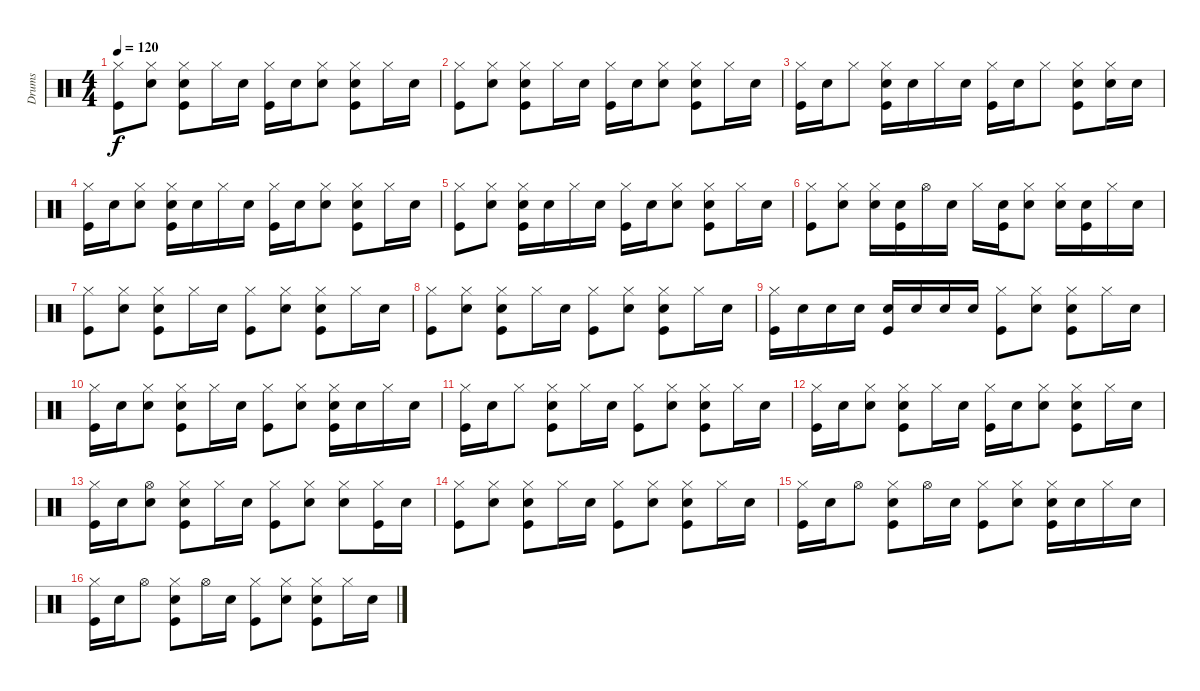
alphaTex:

\track ("Drums" "Drums") {instrument percussion}
\staff {score}
\articulation defaults
\ts (4 4)
\tempo 120
\clef neutral
\ks c
("Hi-Hat (closed)" "Kick (hit)").8{dy f} ("Hi-Hat (closed)" "Snare (hit) 2").8 ("Hi-Hat (closed)" "Snare (hit) 2" "Kick (hit)").8 "Hi-Hat (closed)".16 "Snare (hit) 2".16 ("Hi-Hat (closed)" "Kick (hit)").16 "Snare (hit) 2".16 ("Hi-Hat (closed)" "Snare (hit) 2").8 ("Hi-Hat (closed)" "Snare (hit) 2" "Kick (hit)").8 "Hi-Hat (closed)".16 "Snare (hit) 2".16 |
("Hi-Hat (closed)" "Kick (hit)").8 ("Hi-Hat (closed)" "Snare (hit) 2").8 ("Hi-Hat (closed)" "Snare (hit) 2" "Kick (hit)").8 "Hi-Hat (closed)".16 "Snare (hit) 2".16 ("Hi-Hat (closed)" "Kick (hit)").16 "Snare (hit) 2".16 ("Hi-Hat (closed)" "Snare (hit) 2").8 ("Hi-Hat (closed)" "Snare (hit) 2" "Kick (hit)").8 "Hi-Hat (closed)".16 "Snare (hit) 2".16 |
("Hi-Hat (closed)" "Kick (hit)").16 "Snare (hit) 2".16 "Hi-Hat (closed)".8 ("Hi-Hat (closed)" "Snare (hit) 2" "Kick (hit)").16 "Snare (hit) 2".16 "Hi-Hat (closed)".16 "Snare (hit) 2".16 ("Hi-Hat (closed)" "Kick (hit)").16 "Snare (hit) 2".16 "Hi-Hat (closed)".8 ("Hi-Hat (closed)" "Snare (hit) 2" "Kick (hit)").8 ("Hi-Hat (closed)" "Snare (hit) 2").16 "Snare (hit) 2".16 |
("Hi-Hat (closed)" "Kick (hit)").16 "Snare (hit) 2".16 ("Hi-Hat (closed)" "Snare (hit) 2").8 ("Hi-Hat (closed)" "Snare (hit) 2" "Kick (hit)").16 "Snare (hit)".16 "Hi-Hat (closed)".16 "Snare (hit) 2".16 ("Hi-Hat (closed)" "Kick (hit)").16 "Snare (hit) 2".16 ("Hi-Hat (closed)" "Snare (hit) 2").8 ("Hi-Hat (closed)" "Snare (hit) 2" "Kick (hit)").8 "Hi-Hat (closed)".16 "Snare (hit) 2".16 |
("Hi-Hat (closed)" "Kick (hit)").8 ("Hi-Hat (closed)" "Snare (hit) 2").8 ("Hi-Hat (closed)" "Snare (hit) 2" "Kick (hit)").16 "Snare (hit) 2".16 "Hi-Hat (closed)".16 "Snare (hit) 2".16 ("Hi-Hat (closed)" "Kick (hit)").16 "Snare (hit) 2".16 ("Hi-Hat (closed)" "Snare (hit) 2").8 ("Hi-Hat (closed)" "Snare (hit) 2" "Kick (hit)").8 "Hi-Hat (closed)".16 "Snare (hit) 2".16 |
("Hi-Hat (closed)" "Kick (hit)").8 ("Hi-Hat (closed)" "Snare (hit) 2").8 ("Hi-Hat (closed)" "Snare (hit) 2").16 ("Snare (hit) 2" "Kick (hit)").16 "Hi-Hat (open)".16 "Snare (hit) 2".16 "Hi-Hat (closed)".16 ("Snare (hit) 2" "Kick (hit)").16 ("Hi-Hat (closed)" "Snare (hit) 2").8 ("Hi-Hat (closed)" "Snare (hit) 2").16 ("Snare (hit) 2" "Kick (hit)").16 "Hi-Hat (closed)".16 "Snare (hit) 2".16 |
("Hi-Hat (closed)" "Kick (hit)").8 ("Hi-Hat (closed)" "Snare (hit) 2").8 ("Hi-Hat (closed)" "Snare (hit) 2" "Kick (hit)").8 "Hi-Hat (closed)".16 "Snare (hit) 2".16 ("Hi-Hat (closed)" "Kick (hit)").8 ("Hi-Hat (closed)" "Snare (hit) 2").8 ("Hi-Hat (closed)" "Snare (hit) 2" "Kick (hit)").8 "Hi-Hat (closed)".16 "Snare (hit) 2".16 |
("Hi-Hat (closed)" "Kick (hit)").8 ("Hi-Hat (closed)" "Snare (hit) 2").8 ("Hi-Hat (closed)" "Snare (hit) 2" "Kick (hit)").8 "Hi-Hat (closed)".16 "Snare (hit) 2".16 ("Hi-Hat (closed)" "Kick (hit)").8 ("Hi-Hat (closed)" "Snare (hit) 2").8 ("Hi-Hat (closed)" "Snare (hit) 2" "Kick (hit)").8 "Hi-Hat (closed)".16 "Snare (hit) 2".16 |
("Hi-Hat (closed)" "Kick (hit)").16 "Snare (hit) 2".16 "Snare (hit) 2".16 "Snare (hit) 2".16 ("Snare (hit) 2" "Kick (hit)").16 "Snare (hit) 2".16 "Snare (hit) 2".16 "Snare (hit) 2".16 ("Hi-Hat (closed)" "Kick (hit)").8 ("Hi-Hat (closed)" "Snare (hit) 2").8 ("Hi-Hat (closed)" "Snare (hit) 2" "Kick (hit)").8 "Hi-Hat (closed)".16 "Snare (hit) 2".16 |
("Hi-Hat (closed)" "Kick (hit)").16 "Snare (hit) 2".16 ("Hi-Hat (closed)" "Snare (hit) 2").8 ("Hi-Hat (closed)" "Snare (hit) 2" "Kick (hit)").8 "Hi-Hat (closed)".16 "Snare (hit) 2".16 ("Hi-Hat (closed)" "Kick (hit)").8 ("Hi-Hat (closed)" "Snare (hit) 2").8 ("Hi-Hat (closed)" "Snare (hit) 2" "Kick (hit)").16 "Snare (hit) 2".16 "Hi-Hat (closed)".16 "Snare (hit) 2".16 |
("Hi-Hat (closed)" "Kick (hit)").16 "Snare (hit) 2".16 "Hi-Hat (closed)".8 ("Hi-Hat (closed)" "Snare (hit) 2" "Kick (hit)").8 "Hi-Hat (closed)".16 "Snare (hit) 2".16 ("Hi-Hat (closed)" "Kick (hit)").8 ("Hi-Hat (closed)" "Snare (hit) 2").8 ("Hi-Hat (closed)" "Snare (hit) 2" "Kick (hit)").8 "Hi-Hat (closed)".16 "Snare (hit) 2".16 |
("Hi-Hat (closed)" "Kick (hit)").16 "Snare (hit) 2".16 ("Hi-Hat (closed)" "Snare (hit) 2").8 ("Hi-Hat (closed)" "Snare (hit) 2" "Kick (hit)").8 "Hi-Hat (closed)".16 "Snare (hit) 2".16 ("Hi-Hat (closed)" "Kick (hit)").16 "Snare (hit) 2".16 ("Hi-Hat (closed)" "Snare (hit) 2").8 ("Hi-Hat (closed)" "Snare (hit) 2" "Kick (hit)").8 "Hi-Hat (closed)".16 "Snare (hit) 2".16 |
("Hi-Hat (closed)" "Kick (hit)").16 "Snare (hit) 2".16 ("Hi-Hat (open)" "Snare (hit) 2").8 ("Hi-Hat (closed)" "Snare (hit) 2" "Kick (hit)").8 "Hi-Hat (closed)".16 "Snare (hit) 2".16 ("Hi-Hat (closed)" "Kick (hit)").8 ("Hi-Hat (closed)" "Snare (hit) 2").8 ("Hi-Hat (closed)" "Snare (hit) 2").8 ("Hi-Hat (closed)" "Kick (hit)").16 "Snare (hit) 2".16 |
("Hi-Hat (closed)" "Kick (hit)").8 ("Hi-Hat (closed)" "Snare (hit) 2").8 ("Hi-Hat (closed)" "Snare (hit) 2" "Kick (hit)").8 "Hi-Hat (closed)".16 "Snare (hit) 2".16 ("Hi-Hat (closed)" "Kick (hit)").8 ("Hi-Hat (closed)" "Snare (hit) 2").8 ("Hi-Hat (closed)" "Snare (hit) 2" "Kick (hit)").8 "Hi-Hat (closed)".16 "Snare (hit) 2".16 |
("Hi-Hat (closed)" "Kick (hit)").16 "Snare (hit) 2".16 "Hi-Hat (open)".8 ("Hi-Hat (closed)" "Snare (hit) 2" "Kick (hit)").8 "Hi-Hat (open)".16 "Snare (hit) 2".16 ("Hi-Hat (closed)" "Kick (hit)").8 ("Hi-Hat (closed)" "Snare (hit) 2").8 ("Hi-Hat (closed)" "Snare (hit) 2" "Kick (hit)").16 "Snare (hit) 2".16 "Hi-Hat (closed)".16 "Snare (hit) 2".16 |
("Hi-Hat (closed)" "Kick (hit)").16 "Snare (hit) 2".16 "Hi-Hat (open)".8 ("Hi-Hat (closed)" "Snare (hit) 2" "Kick (hit)").8 "Hi-Hat (open)".16 "Snare (hit) 2".16 ("Hi-Hat (closed)" "Kick (hit)").8 ("Hi-Hat (closed)" "Snare (hit) 2").8 ("Hi-Hat (closed)" "Snare (hit) 2" "Kick (hit)").8 "Hi-Hat (closed)".16 "Snare (hit) 2".16
